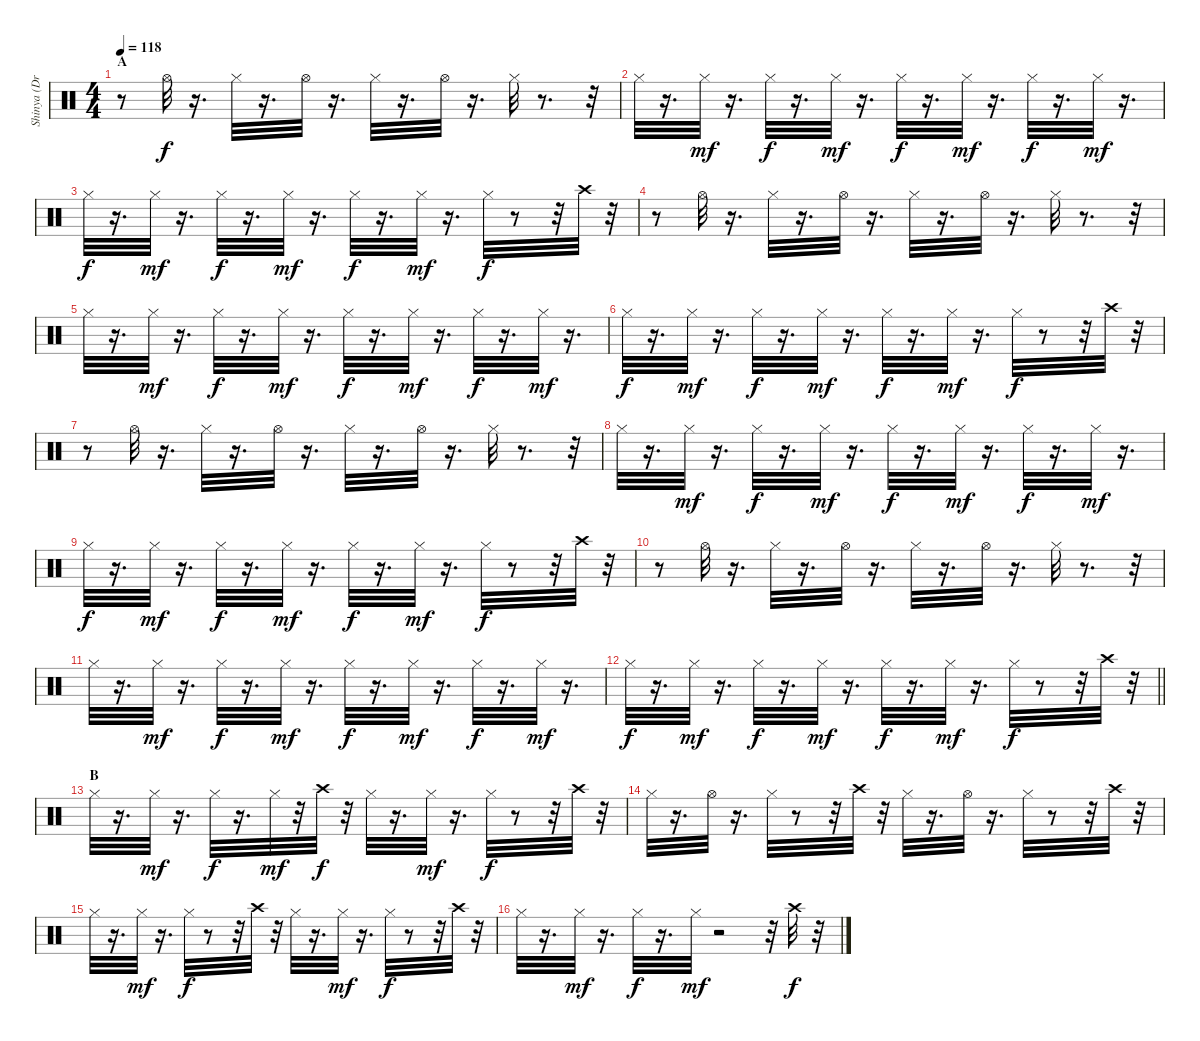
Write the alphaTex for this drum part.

\track ("Shinya (Drums)" "Shinya (Dr") {instrument percussion}
\staff {score}
\articulation defaults
\ts (4 4)
\section ("" "A")
\tempo 118
\clef neutral
\ks c
r.8{dy f} "Hi-Hat (open)".32 r.16{d} "Hi-Hat (closed)".32 r.16{d} "Hi-Hat (open)".32 r.16{d} "Hi-Hat (closed)".32 r.16{d} "Hi-Hat (open)".32 r.16{d} "Hi-Hat (closed)".32 r.8{d} r.32 |
"Hi-Hat (closed)".32 r.16{d} "Hi-Hat (closed)".32{dy mf} r.16{d} "Hi-Hat (closed)".32{dy f} r.16{d} "Hi-Hat (closed)".32{dy mf} r.16{d} "Hi-Hat (closed)".32{dy f} r.16{d} "Hi-Hat (closed)".32{dy mf} r.16{d} "Hi-Hat (closed)".32{dy f} r.16{d} "Hi-Hat (closed)".32{dy mf} r.16{d} |
"Hi-Hat (closed)".32{dy f} r.16{d} "Hi-Hat (closed)".32{dy mf} r.16{d} "Hi-Hat (closed)".32{dy f} r.16{d} "Hi-Hat (closed)".32{dy mf} r.16{d} "Hi-Hat (closed)".32{dy f} r.16{d} "Hi-Hat (closed)".32{dy mf} r.16{d} "Hi-Hat (closed)".32{dy f} r.8 r.32 "Crash high (hit)".32 r.32 |
r.8 "Hi-Hat (open)".32 r.16{d} "Hi-Hat (closed)".32 r.16{d} "Hi-Hat (open)".32 r.16{d} "Hi-Hat (closed)".32 r.16{d} "Hi-Hat (open)".32 r.16{d} "Hi-Hat (closed)".32 r.8{d} r.32 |
"Hi-Hat (closed)".32 r.16{d} "Hi-Hat (closed)".32{dy mf} r.16{d} "Hi-Hat (closed)".32{dy f} r.16{d} "Hi-Hat (closed)".32{dy mf} r.16{d} "Hi-Hat (closed)".32{dy f} r.16{d} "Hi-Hat (closed)".32{dy mf} r.16{d} "Hi-Hat (closed)".32{dy f} r.16{d} "Hi-Hat (closed)".32{dy mf} r.16{d} |
"Hi-Hat (closed)".32{dy f} r.16{d} "Hi-Hat (closed)".32{dy mf} r.16{d} "Hi-Hat (closed)".32{dy f} r.16{d} "Hi-Hat (closed)".32{dy mf} r.16{d} "Hi-Hat (closed)".32{dy f} r.16{d} "Hi-Hat (closed)".32{dy mf} r.16{d} "Hi-Hat (closed)".32{dy f} r.8 r.32 "Crash high (hit)".32 r.32 |
r.8 "Hi-Hat (open)".32 r.16{d} "Hi-Hat (closed)".32 r.16{d} "Hi-Hat (open)".32 r.16{d} "Hi-Hat (closed)".32 r.16{d} "Hi-Hat (open)".32 r.16{d} "Hi-Hat (closed)".32 r.8{d} r.32 |
"Hi-Hat (closed)".32 r.16{d} "Hi-Hat (closed)".32{dy mf} r.16{d} "Hi-Hat (closed)".32{dy f} r.16{d} "Hi-Hat (closed)".32{dy mf} r.16{d} "Hi-Hat (closed)".32{dy f} r.16{d} "Hi-Hat (closed)".32{dy mf} r.16{d} "Hi-Hat (closed)".32{dy f} r.16{d} "Hi-Hat (closed)".32{dy mf} r.16{d} |
"Hi-Hat (closed)".32{dy f} r.16{d} "Hi-Hat (closed)".32{dy mf} r.16{d} "Hi-Hat (closed)".32{dy f} r.16{d} "Hi-Hat (closed)".32{dy mf} r.16{d} "Hi-Hat (closed)".32{dy f} r.16{d} "Hi-Hat (closed)".32{dy mf} r.16{d} "Hi-Hat (closed)".32{dy f} r.8 r.32 "Crash high (hit)".32 r.32 |
r.8 "Hi-Hat (open)".32 r.16{d} "Hi-Hat (closed)".32 r.16{d} "Hi-Hat (open)".32 r.16{d} "Hi-Hat (closed)".32 r.16{d} "Hi-Hat (open)".32 r.16{d} "Hi-Hat (closed)".32 r.8{d} r.32 |
"Hi-Hat (closed)".32 r.16{d} "Hi-Hat (closed)".32{dy mf} r.16{d} "Hi-Hat (closed)".32{dy f} r.16{d} "Hi-Hat (closed)".32{dy mf} r.16{d} "Hi-Hat (closed)".32{dy f} r.16{d} "Hi-Hat (closed)".32{dy mf} r.16{d} "Hi-Hat (closed)".32{dy f} r.16{d} "Hi-Hat (closed)".32{dy mf} r.16{d} |
\barLineRight lightlight "Hi-Hat (closed)".32{dy f}
r.16{d} "Hi-Hat (closed)".32{dy mf} r.16{d} "Hi-Hat (closed)".32{dy f} r.16{d} "Hi-Hat (closed)".32{dy mf} r.16{d} "Hi-Hat (closed)".32{dy f} r.16{d} "Hi-Hat (closed)".32{dy mf} r.16{d} "Hi-Hat (closed)".32{dy f} r.8 r.32 "Crash high (hit)".32 r.32 |
\section ("" "B")
"Hi-Hat (closed)".32 r.16{d} "Hi-Hat (closed)".32{dy mf} r.16{d} "Hi-Hat (closed)".32{dy f} r.16{d} "Hi-Hat (closed)".32{dy mf} r.32 "Crash high (hit)".32{dy f} r.32 "Hi-Hat (closed)".32 r.16{d} "Hi-Hat (closed)".32{dy mf} r.16{d} "Hi-Hat (closed)".32{dy f} r.8 r.32 "Crash high (hit)".32 r.32 |
"Hi-Hat (closed)".32 r.16{d} "Hi-Hat (open)".32 r.16{d} "Hi-Hat (closed)".32 r.8 r.32 "Crash high (hit)".32 r.32 "Hi-Hat (closed)".32 r.16{d} "Hi-Hat (open)".32 r.16{d} "Hi-Hat (closed)".32 r.8 r.32 "Crash high (hit)".32 r.32 |
"Hi-Hat (closed)".32 r.16{d} "Hi-Hat (closed)".32{dy mf} r.16{d} "Hi-Hat (closed)".32{dy f} r.8 r.32 "Crash high (hit)".32 r.32 "Hi-Hat (closed)".32 r.16{d} "Hi-Hat (closed)".32{dy mf} r.16{d} "Hi-Hat (closed)".32{dy f} r.8 r.32 "Crash high (hit)".32 r.32 |
"Hi-Hat (closed)".32 r.16{d} "Hi-Hat (closed)".32{dy mf} r.16{d} "Hi-Hat (closed)".32{dy f} r.16{d} "Hi-Hat (closed)".32{dy mf} r.2 r.32 "Crash high (hit)".32{dy f} r.32
